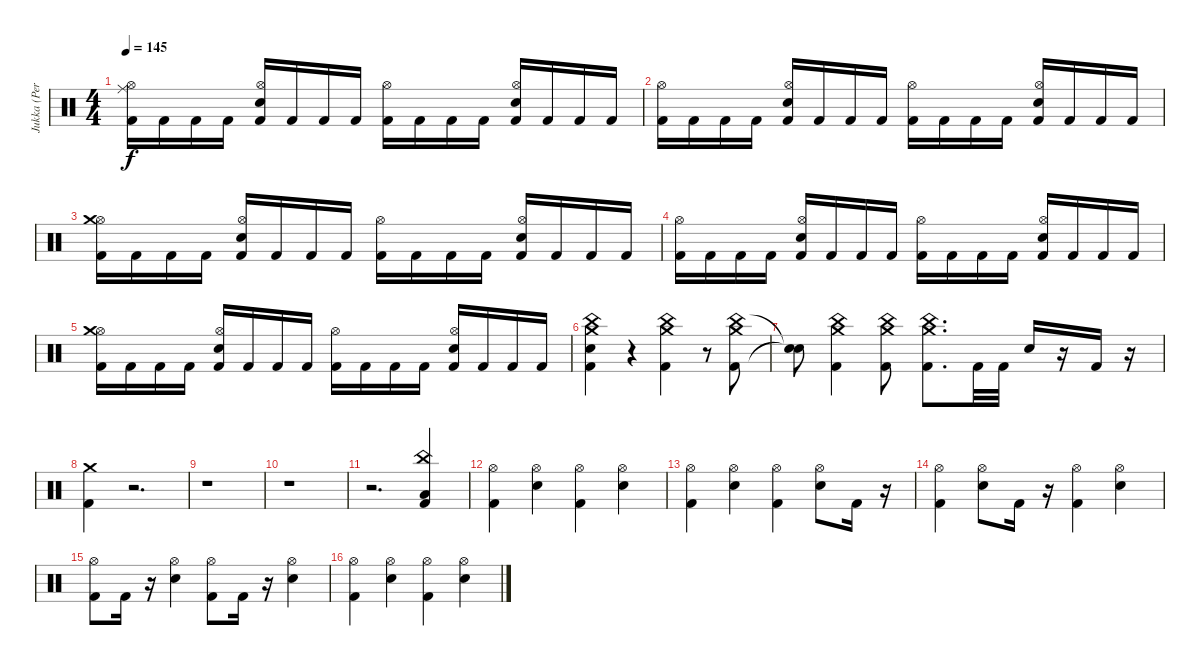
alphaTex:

\track ("Jukka (Percussion)" "Jukka (Per") {instrument percussion}
\staff {score}
\articulation defaults
\ts (4 4)
\tempo 145
\clef neutral
\ks c
("Kick (hit) 2" "Hi-Hat (open)" "Ride (middle)").16{dy f} "Kick (hit) 2".16 "Kick (hit) 2".16 "Kick (hit) 2".16 ("Kick (hit) 2" "Electric Snare (hit)" "Hi-Hat (open)").16 "Kick (hit) 2".16 "Kick (hit) 2".16 "Kick (hit) 2".16 ("Kick (hit) 2" "Hi-Hat (open)").16 "Kick (hit) 2".16 "Kick (hit) 2".16 "Kick (hit) 2".16 ("Kick (hit) 2" "Electric Snare (hit)" "Hi-Hat (open)").16 "Kick (hit) 2".16 "Kick (hit) 2".16 "Kick (hit) 2".16 |
("Kick (hit) 2" "Hi-Hat (open)").16 "Kick (hit) 2".16 "Kick (hit) 2".16 "Kick (hit) 2".16 ("Kick (hit) 2" "Electric Snare (hit)" "Hi-Hat (open)").16 "Kick (hit) 2".16 "Kick (hit) 2".16 "Kick (hit) 2".16 ("Kick (hit) 2" "Hi-Hat (open)").16 "Kick (hit) 2".16 "Kick (hit) 2".16 "Kick (hit) 2".16 ("Kick (hit) 2" "Electric Snare (hit)" "Hi-Hat (open)").16 "Kick (hit) 2".16 "Kick (hit) 2".16 "Kick (hit) 2".16 |
("Kick (hit) 2" "Hi-Hat (open)" "Crash medium (hit)").16 "Kick (hit) 2".16 "Kick (hit) 2".16 "Kick (hit) 2".16 ("Kick (hit) 2" "Electric Snare (hit)" "Hi-Hat (open)").16 "Kick (hit) 2".16 "Kick (hit) 2".16 "Kick (hit) 2".16 ("Kick (hit) 2" "Hi-Hat (open)").16 "Kick (hit) 2".16 "Kick (hit) 2".16 "Kick (hit) 2".16 ("Kick (hit) 2" "Electric Snare (hit)" "Hi-Hat (open)").16 "Kick (hit) 2".16 "Kick (hit) 2".16 "Kick (hit) 2".16 |
("Kick (hit) 2" "Hi-Hat (open)").16 "Kick (hit) 2".16 "Kick (hit) 2".16 "Kick (hit) 2".16 ("Kick (hit) 2" "Electric Snare (hit)" "Hi-Hat (open)").16 "Kick (hit) 2".16 "Kick (hit) 2".16 "Kick (hit) 2".16 ("Kick (hit) 2" "Hi-Hat (open)").16 "Kick (hit) 2".16 "Kick (hit) 2".16 "Kick (hit) 2".16 ("Kick (hit) 2" "Electric Snare (hit)" "Hi-Hat (open)").16 "Kick (hit) 2".16 "Kick (hit) 2".16 "Kick (hit) 2".16 |
("Kick (hit) 2" "Hi-Hat (open)" "Crash medium (hit)").16 "Kick (hit) 2".16 "Kick (hit) 2".16 "Kick (hit) 2".16 ("Kick (hit) 2" "Electric Snare (hit)" "Hi-Hat (open)").16 "Kick (hit) 2".16 "Kick (hit) 2".16 "Kick (hit) 2".16 ("Kick (hit) 2" "Hi-Hat (open)").16 "Kick (hit) 2".16 "Kick (hit) 2".16 "Kick (hit) 2".16 ("Kick (hit) 2" "Electric Snare (hit)" "Hi-Hat (open)").16 "Kick (hit) 2".16 "Kick (hit) 2".16 "Kick (hit) 2".16 |
("Kick (hit) 2" "Electric Snare (hit)" "China (hit)" "Crash medium (hit)").4 r.4 ("Kick (hit) 2" "China (hit)" "Crash medium (hit)").4 r.8 ("Kick (hit) 2" "China (hit)" "Crash medium (hit)").8 |
("Snare (hit)"{t} "Snare (hit)"{t}).8 ("Kick (hit) 2" "China (hit)" "Crash medium (hit)").4 ("Kick (hit) 2" "China (hit)" "Crash medium (hit)").8 ("Kick (hit) 2" "China (hit)" "Crash medium (hit)").8{d} "Kick (hit) 2".32 "Kick (hit) 2".32 "Electric Snare (hit)".16 r.16 "Kick (hit) 2".16 r.16 |
("Kick (hit) 2" "Crash medium (hit)").4 r.2{d} |
r.1 |
r.1 |
r.2{d} ("Kick (hit) 2" "Low Floor Tom (hit)" "China (hit)").4 |
("Kick (hit) 2" "Hi-Hat (open)").4 ("Electric Snare (hit)" "Hi-Hat (open)").4 ("Kick (hit) 2" "Hi-Hat (open)").4 ("Electric Snare (hit)" "Hi-Hat (open)").4 |
("Kick (hit) 2" "Hi-Hat (open)").4 ("Electric Snare (hit)" "Hi-Hat (open)").4 ("Kick (hit) 2" "Hi-Hat (open)").4 ("Electric Snare (hit)" "Hi-Hat (open)").8 "Kick (hit) 2".16 r.16 |
("Kick (hit) 2" "Hi-Hat (open)").4 ("Electric Snare (hit)" "Hi-Hat (open)").8 "Kick (hit) 2".16 r.16 ("Kick (hit) 2" "Hi-Hat (open)").4 ("Electric Snare (hit)" "Hi-Hat (open)").4 |
("Kick (hit) 2" "Hi-Hat (open)").8 "Kick (hit) 2".16 r.16 ("Electric Snare (hit)" "Hi-Hat (open)").4 ("Kick (hit) 2" "Hi-Hat (open)").8 "Kick (hit) 2".16 r.16 ("Electric Snare (hit)" "Hi-Hat (open)").4 |
("Kick (hit) 2" "Hi-Hat (open)").4 ("Electric Snare (hit)" "Hi-Hat (open)").4 ("Kick (hit) 2" "Hi-Hat (open)").4 ("Electric Snare (hit)" "Hi-Hat (open)").4
